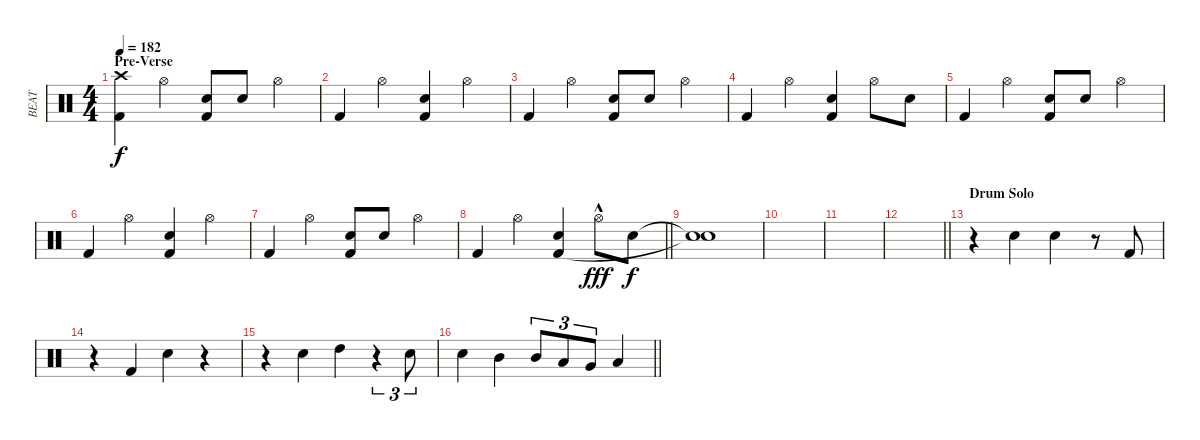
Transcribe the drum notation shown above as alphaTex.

\track ("BEAT" "BEAT") {instrument percussion}
\staff {score}
\articulation defaults
\ts (4 4)
\section ("" "Pre-Verse")
\tempo 182
\clef neutral
\ks c
("Crash high (hit)" "Kick (hit) 2").4{dy f} "Hi-Hat (open)".4 ("Electric Snare (hit)" "Kick (hit) 2").8 "Electric Snare (hit)".8 "Hi-Hat (open)".4 |
"Kick (hit) 2".4 "Hi-Hat (open)".4 ("Electric Snare (hit)" "Kick (hit) 2").4 "Hi-Hat (open)".4 |
"Kick (hit) 2".4 "Hi-Hat (open)".4 ("Electric Snare (hit)" "Kick (hit) 2").8 "Electric Snare (hit)".8 "Hi-Hat (open)".4 |
"Kick (hit) 2".4 "Hi-Hat (open)".4 ("Electric Snare (hit)" "Kick (hit) 2").4 "Hi-Hat (open)".8 "Electric Snare (hit)".8 |
"Kick (hit) 2".4 "Hi-Hat (open)".4 ("Electric Snare (hit)" "Kick (hit) 2").8 "Electric Snare (hit)".8 "Hi-Hat (open)".4 |
"Kick (hit) 2".4 "Hi-Hat (open)".4 ("Electric Snare (hit)" "Kick (hit) 2").4 "Hi-Hat (open)".4 |
"Kick (hit) 2".4 "Hi-Hat (open)".4 ("Electric Snare (hit)" "Kick (hit) 2").8 "Electric Snare (hit)".8 "Hi-Hat (open)".4 |
\barLineRight lightlight "Kick (hit) 2".4 "Hi-Hat (open)".4
("Electric Snare (hit)" "Kick (hit) 2").4 "Hi-Hat (open)"{hac}.8{dy fff} "Electric Snare (hit)".8{dy f} |
("Snare (hit)"{t} "Snare (hit)"{t}).1 |
|
|
\barLineRight lightlight
|
\section ("" "Drum Solo")
r.4 "Electric Snare (hit)".4 "Electric Snare (hit)".4 r.8 "Kick (hit) 2".8 |
r.4 "Kick (hit) 2".4 "Electric Snare (hit)".4 r.4 |
r.4 "Electric Snare (hit)".4 "High Tom (hit)".4 r.4{tu (3 2)} "Electric Snare (hit)".8{tu (3 2)} |
\barLineRight lightlight "Electric Snare (hit)".4 "Mid Tom (hit)".4 "Mid Tom (hit)".8{tu (3 2)} "Low Tom (hit)".8{tu (3 2)} "Very Low Tom (hit)".8{tu (3 2)} "Low Floor Tom (hit)".4
